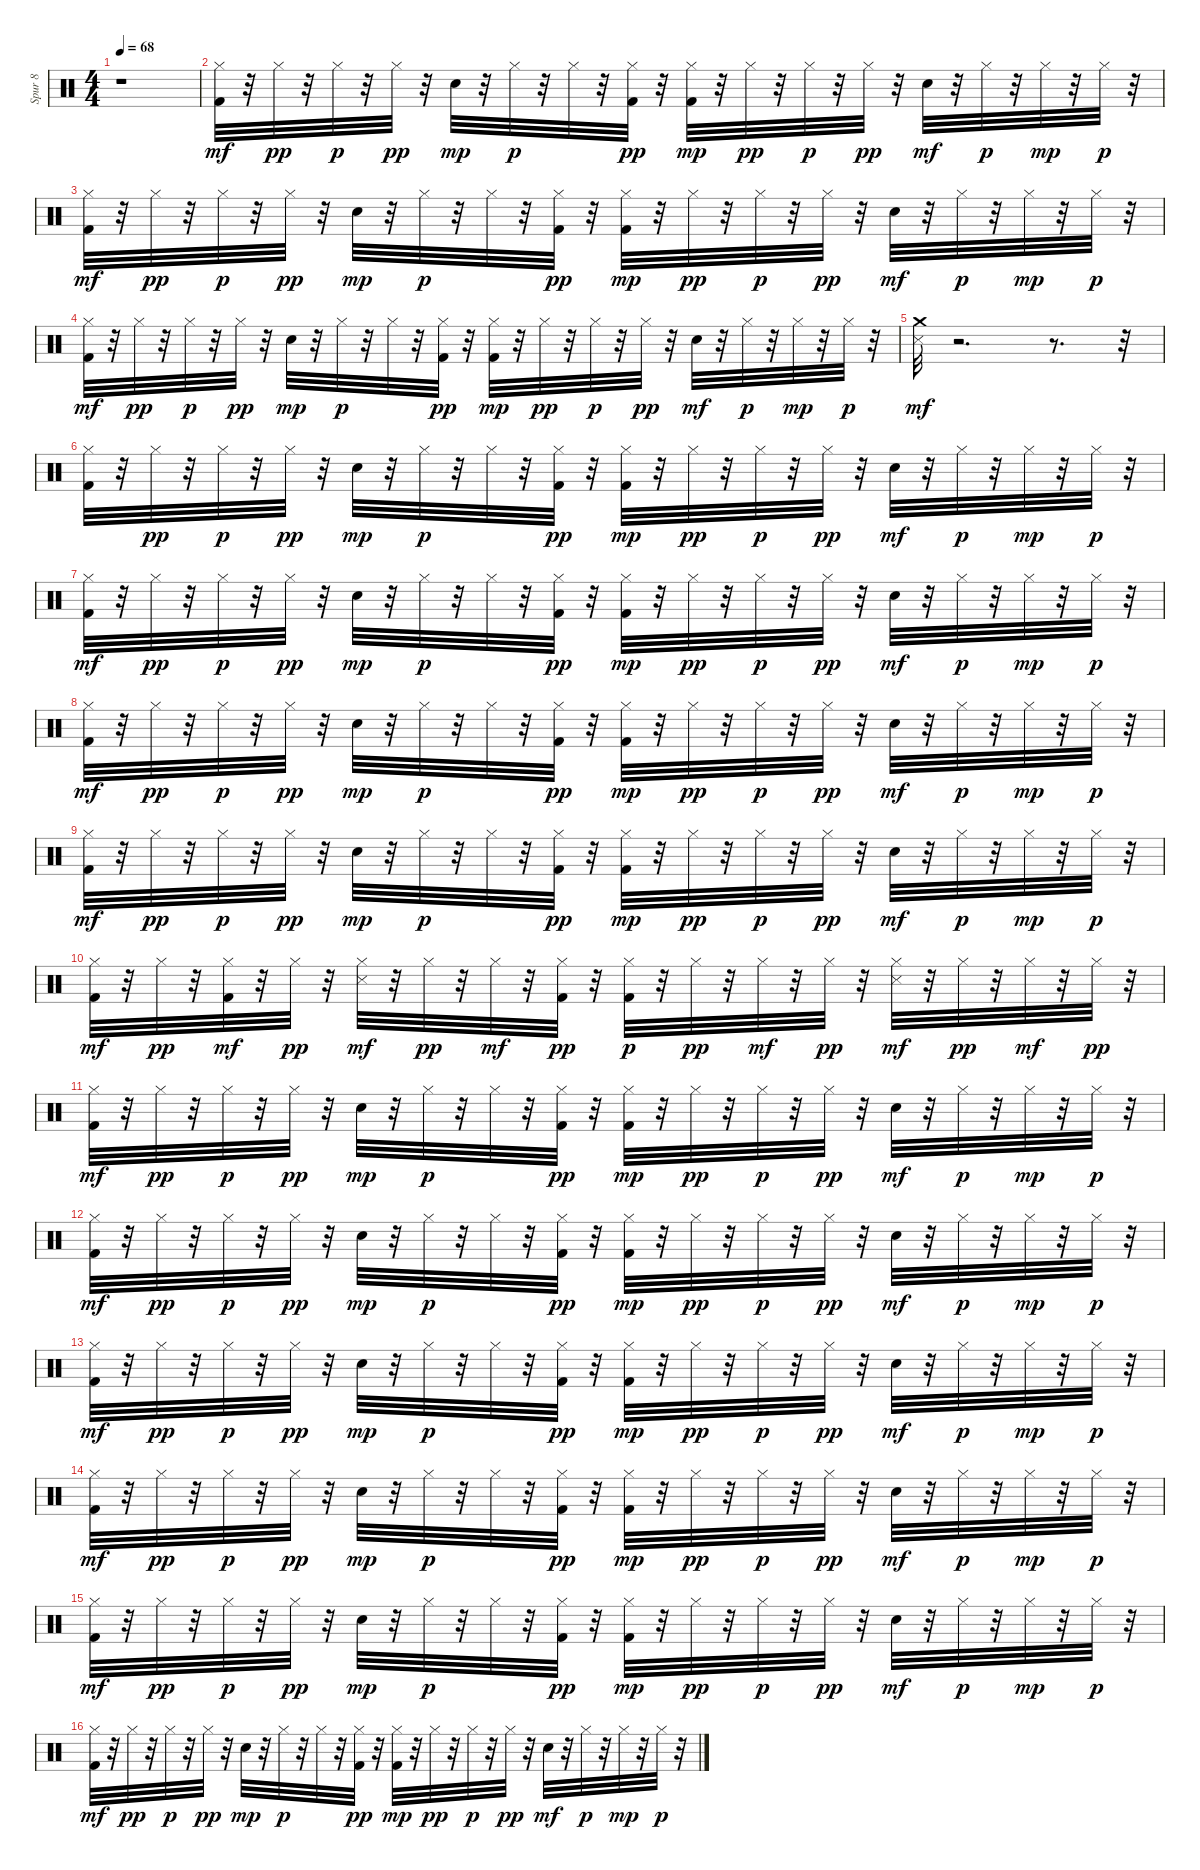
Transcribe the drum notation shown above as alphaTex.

\track ("Spur 8" "Spur 8") {instrument percussion}
\staff {score}
\articulation defaults
\ts (4 4)
\tempo 68
\clef neutral
\ks c
r.1{dy mf} |
("Hi-Hat (closed)" "Kick (hit) 2").32 r.32 "Hi-Hat (closed)".32{dy pp} r.32 "Hi-Hat (closed)".32{dy p} r.32 "Hi-Hat (closed)".32{dy pp} r.32 "Electric Snare (hit)".32{dy mp} r.32 "Hi-Hat (closed)".32{dy p} r.32 "Hi-Hat (closed)".32 r.32 ("Hi-Hat (closed)" "Kick (hit) 2").32{dy pp} r.32 ("Hi-Hat (closed)" "Kick (hit) 2").32{dy mp} r.32 "Hi-Hat (closed)".32{dy pp} r.32 "Hi-Hat (closed)".32{dy p} r.32 "Hi-Hat (closed)".32{dy pp} r.32 "Electric Snare (hit)".32{dy mf} r.32 "Hi-Hat (closed)".32{dy p} r.32 "Hi-Hat (closed)".32{dy mp} r.32 "Hi-Hat (closed)".32{dy p} r.32 |
("Hi-Hat (closed)" "Kick (hit) 2").32{dy mf} r.32 "Hi-Hat (closed)".32{dy pp} r.32 "Hi-Hat (closed)".32{dy p} r.32 "Hi-Hat (closed)".32{dy pp} r.32 "Electric Snare (hit)".32{dy mp} r.32 "Hi-Hat (closed)".32{dy p} r.32 "Hi-Hat (closed)".32 r.32 ("Hi-Hat (closed)" "Kick (hit) 2").32{dy pp} r.32 ("Hi-Hat (closed)" "Kick (hit) 2").32{dy mp} r.32 "Hi-Hat (closed)".32{dy pp} r.32 "Hi-Hat (closed)".32{dy p} r.32 "Hi-Hat (closed)".32{dy pp} r.32 "Electric Snare (hit)".32{dy mf} r.32 "Hi-Hat (closed)".32{dy p} r.32 "Hi-Hat (closed)".32{dy mp} r.32 "Hi-Hat (closed)".32{dy p} r.32 |
("Hi-Hat (closed)" "Kick (hit) 2").32{dy mf} r.32 "Hi-Hat (closed)".32{dy pp} r.32 "Hi-Hat (closed)".32{dy p} r.32 "Hi-Hat (closed)".32{dy pp} r.32 "Electric Snare (hit)".32{dy mp} r.32 "Hi-Hat (closed)".32{dy p} r.32 "Hi-Hat (closed)".32 r.32 ("Hi-Hat (closed)" "Kick (hit) 2").32{dy pp} r.32 ("Hi-Hat (closed)" "Kick (hit) 2").32{dy mp} r.32 "Hi-Hat (closed)".32{dy pp} r.32 "Hi-Hat (closed)".32{dy p} r.32 "Hi-Hat (closed)".32{dy pp} r.32 "Electric Snare (hit)".32{dy mf} r.32 "Hi-Hat (closed)".32{dy p} r.32 "Hi-Hat (closed)".32{dy mp} r.32 "Hi-Hat (closed)".32{dy p} r.32 |
("Metronome (hit)" "Crash medium (hit)").32{dy mf} r.2{d} r.8{d} r.32 |
("Hi-Hat (closed)" "Kick (hit) 2").32 r.32 "Hi-Hat (closed)".32{dy pp} r.32 "Hi-Hat (closed)".32{dy p} r.32 "Hi-Hat (closed)".32{dy pp} r.32 "Electric Snare (hit)".32{dy mp} r.32 "Hi-Hat (closed)".32{dy p} r.32 "Hi-Hat (closed)".32 r.32 ("Hi-Hat (closed)" "Kick (hit) 2").32{dy pp} r.32 ("Hi-Hat (closed)" "Kick (hit) 2").32{dy mp} r.32 "Hi-Hat (closed)".32{dy pp} r.32 "Hi-Hat (closed)".32{dy p} r.32 "Hi-Hat (closed)".32{dy pp} r.32 "Electric Snare (hit)".32{dy mf} r.32 "Hi-Hat (closed)".32{dy p} r.32 "Hi-Hat (closed)".32{dy mp} r.32 "Hi-Hat (closed)".32{dy p} r.32 |
("Hi-Hat (closed)" "Kick (hit) 2").32{dy mf} r.32 "Hi-Hat (closed)".32{dy pp} r.32 "Hi-Hat (closed)".32{dy p} r.32 "Hi-Hat (closed)".32{dy pp} r.32 "Electric Snare (hit)".32{dy mp} r.32 "Hi-Hat (closed)".32{dy p} r.32 "Hi-Hat (closed)".32 r.32 ("Hi-Hat (closed)" "Kick (hit) 2").32{dy pp} r.32 ("Hi-Hat (closed)" "Kick (hit) 2").32{dy mp} r.32 "Hi-Hat (closed)".32{dy pp} r.32 "Hi-Hat (closed)".32{dy p} r.32 "Hi-Hat (closed)".32{dy pp} r.32 "Electric Snare (hit)".32{dy mf} r.32 "Hi-Hat (closed)".32{dy p} r.32 "Hi-Hat (closed)".32{dy mp} r.32 "Hi-Hat (closed)".32{dy p} r.32 |
("Hi-Hat (closed)" "Kick (hit) 2").32{dy mf} r.32 "Hi-Hat (closed)".32{dy pp} r.32 "Hi-Hat (closed)".32{dy p} r.32 "Hi-Hat (closed)".32{dy pp} r.32 "Electric Snare (hit)".32{dy mp} r.32 "Hi-Hat (closed)".32{dy p} r.32 "Hi-Hat (closed)".32 r.32 ("Hi-Hat (closed)" "Kick (hit) 2").32{dy pp} r.32 ("Hi-Hat (closed)" "Kick (hit) 2").32{dy mp} r.32 "Hi-Hat (closed)".32{dy pp} r.32 "Hi-Hat (closed)".32{dy p} r.32 "Hi-Hat (closed)".32{dy pp} r.32 "Electric Snare (hit)".32{dy mf} r.32 "Hi-Hat (closed)".32{dy p} r.32 "Hi-Hat (closed)".32{dy mp} r.32 "Hi-Hat (closed)".32{dy p} r.32 |
("Hi-Hat (closed)" "Kick (hit) 2").32{dy mf} r.32 "Hi-Hat (closed)".32{dy pp} r.32 "Hi-Hat (closed)".32{dy p} r.32 "Hi-Hat (closed)".32{dy pp} r.32 "Electric Snare (hit)".32{dy mp} r.32 "Hi-Hat (closed)".32{dy p} r.32 "Hi-Hat (closed)".32 r.32 ("Hi-Hat (closed)" "Kick (hit) 2").32{dy pp} r.32 ("Hi-Hat (closed)" "Kick (hit) 2").32{dy mp} r.32 "Hi-Hat (closed)".32{dy pp} r.32 "Hi-Hat (closed)".32{dy p} r.32 "Hi-Hat (closed)".32{dy pp} r.32 "Electric Snare (hit)".32{dy mf} r.32 "Hi-Hat (closed)".32{dy p} r.32 "Hi-Hat (closed)".32{dy mp} r.32 "Hi-Hat (closed)".32{dy p} r.32 |
("Kick (hit) 2" "Hi-Hat (closed)").32{dy mf} r.32 "Hi-Hat (closed)".32{dy pp} r.32 ("Kick (hit) 2" "Hi-Hat (closed)").32{dy mf} r.32 "Hi-Hat (closed)".32{dy pp} r.32 ("Snare (side stick) 3" "Hi-Hat (closed)").32{dy mf} r.32 "Hi-Hat (closed)".32{dy pp} r.32 "Hi-Hat (closed)".32{dy mf} r.32 ("Kick (hit) 2" "Hi-Hat (closed)").32{dy pp} r.32 ("Kick (hit) 2" "Hi-Hat (closed)").32{dy p} r.32 "Hi-Hat (closed)".32{dy pp} r.32 "Hi-Hat (closed)".32{dy mf} r.32 "Hi-Hat (closed)".32{dy pp} r.32 ("Snare (side stick) 3" "Hi-Hat (closed)").32{dy mf} r.32 "Hi-Hat (closed)".32{dy pp} r.32 "Hi-Hat (closed)".32{dy mf} r.32 "Hi-Hat (closed)".32{dy pp} r.32 |
("Hi-Hat (closed)" "Kick (hit) 2").32{dy mf} r.32 "Hi-Hat (closed)".32{dy pp} r.32 "Hi-Hat (closed)".32{dy p} r.32 "Hi-Hat (closed)".32{dy pp} r.32 "Electric Snare (hit)".32{dy mp} r.32 "Hi-Hat (closed)".32{dy p} r.32 "Hi-Hat (closed)".32 r.32 ("Hi-Hat (closed)" "Kick (hit) 2").32{dy pp} r.32 ("Hi-Hat (closed)" "Kick (hit) 2").32{dy mp} r.32 "Hi-Hat (closed)".32{dy pp} r.32 "Hi-Hat (closed)".32{dy p} r.32 "Hi-Hat (closed)".32{dy pp} r.32 "Electric Snare (hit)".32{dy mf} r.32 "Hi-Hat (closed)".32{dy p} r.32 "Hi-Hat (closed)".32{dy mp} r.32 "Hi-Hat (closed)".32{dy p} r.32 |
("Hi-Hat (closed)" "Kick (hit) 2").32{dy mf} r.32 "Hi-Hat (closed)".32{dy pp} r.32 "Hi-Hat (closed)".32{dy p} r.32 "Hi-Hat (closed)".32{dy pp} r.32 "Electric Snare (hit)".32{dy mp} r.32 "Hi-Hat (closed)".32{dy p} r.32 "Hi-Hat (closed)".32 r.32 ("Hi-Hat (closed)" "Kick (hit) 2").32{dy pp} r.32 ("Hi-Hat (closed)" "Kick (hit) 2").32{dy mp} r.32 "Hi-Hat (closed)".32{dy pp} r.32 "Hi-Hat (closed)".32{dy p} r.32 "Hi-Hat (closed)".32{dy pp} r.32 "Electric Snare (hit)".32{dy mf} r.32 "Hi-Hat (closed)".32{dy p} r.32 "Hi-Hat (closed)".32{dy mp} r.32 "Hi-Hat (closed)".32{dy p} r.32 |
("Hi-Hat (closed)" "Kick (hit) 2").32{dy mf} r.32 "Hi-Hat (closed)".32{dy pp} r.32 "Hi-Hat (closed)".32{dy p} r.32 "Hi-Hat (closed)".32{dy pp} r.32 "Electric Snare (hit)".32{dy mp} r.32 "Hi-Hat (closed)".32{dy p} r.32 "Hi-Hat (closed)".32 r.32 ("Hi-Hat (closed)" "Kick (hit) 2").32{dy pp} r.32 ("Hi-Hat (closed)" "Kick (hit) 2").32{dy mp} r.32 "Hi-Hat (closed)".32{dy pp} r.32 "Hi-Hat (closed)".32{dy p} r.32 "Hi-Hat (closed)".32{dy pp} r.32 "Electric Snare (hit)".32{dy mf} r.32 "Hi-Hat (closed)".32{dy p} r.32 "Hi-Hat (closed)".32{dy mp} r.32 "Hi-Hat (closed)".32{dy p} r.32 |
("Hi-Hat (closed)" "Kick (hit) 2").32{dy mf} r.32 "Hi-Hat (closed)".32{dy pp} r.32 "Hi-Hat (closed)".32{dy p} r.32 "Hi-Hat (closed)".32{dy pp} r.32 "Electric Snare (hit)".32{dy mp} r.32 "Hi-Hat (closed)".32{dy p} r.32 "Hi-Hat (closed)".32 r.32 ("Hi-Hat (closed)" "Kick (hit) 2").32{dy pp} r.32 ("Hi-Hat (closed)" "Kick (hit) 2").32{dy mp} r.32 "Hi-Hat (closed)".32{dy pp} r.32 "Hi-Hat (closed)".32{dy p} r.32 "Hi-Hat (closed)".32{dy pp} r.32 "Electric Snare (hit)".32{dy mf} r.32 "Hi-Hat (closed)".32{dy p} r.32 "Hi-Hat (closed)".32{dy mp} r.32 "Hi-Hat (closed)".32{dy p} r.32 |
("Hi-Hat (closed)" "Kick (hit) 2").32{dy mf} r.32 "Hi-Hat (closed)".32{dy pp} r.32 "Hi-Hat (closed)".32{dy p} r.32 "Hi-Hat (closed)".32{dy pp} r.32 "Electric Snare (hit)".32{dy mp} r.32 "Hi-Hat (closed)".32{dy p} r.32 "Hi-Hat (closed)".32 r.32 ("Hi-Hat (closed)" "Kick (hit) 2").32{dy pp} r.32 ("Hi-Hat (closed)" "Kick (hit) 2").32{dy mp} r.32 "Hi-Hat (closed)".32{dy pp} r.32 "Hi-Hat (closed)".32{dy p} r.32 "Hi-Hat (closed)".32{dy pp} r.32 "Electric Snare (hit)".32{dy mf} r.32 "Hi-Hat (closed)".32{dy p} r.32 "Hi-Hat (closed)".32{dy mp} r.32 "Hi-Hat (closed)".32{dy p} r.32 |
("Hi-Hat (closed)" "Kick (hit) 2").32{dy mf} r.32 "Hi-Hat (closed)".32{dy pp} r.32 "Hi-Hat (closed)".32{dy p} r.32 "Hi-Hat (closed)".32{dy pp} r.32 "Electric Snare (hit)".32{dy mp} r.32 "Hi-Hat (closed)".32{dy p} r.32 "Hi-Hat (closed)".32 r.32 ("Hi-Hat (closed)" "Kick (hit) 2").32{dy pp} r.32 ("Hi-Hat (closed)" "Kick (hit) 2").32{dy mp} r.32 "Hi-Hat (closed)".32{dy pp} r.32 "Hi-Hat (closed)".32{dy p} r.32 "Hi-Hat (closed)".32{dy pp} r.32 "Electric Snare (hit)".32{dy mf} r.32 "Hi-Hat (closed)".32{dy p} r.32 "Hi-Hat (closed)".32{dy mp} r.32 "Hi-Hat (closed)".32{dy p} r.32
